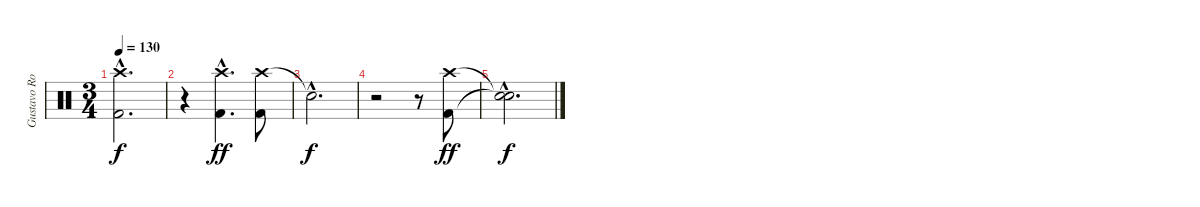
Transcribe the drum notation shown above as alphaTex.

\track ("Gustavo Rowek" "Gustavo Ro") {instrument percussion}
\staff {score}
\articulation defaults
\ts (3 4)
\tempo 130
\clef neutral
\ks c
("Crash high (hit)"{hac} "Kick (hit) 2"{hac}).2{d dy f} |
r.4 ("Crash high (hit)"{hac} "Kick (hit) 2"{hac}).4{d dy ff} ("Crash high (hit)" "Kick (hit) 2").8 |
"Snare (hit)"{hac t}.2{d dy f} |
r.2 r.8 ("Crash high (hit)" "Kick (hit) 2").8{dy ff} |
("Snare (hit)"{hac t} "Snare (hit)"{hac t}).2{d dy f}
